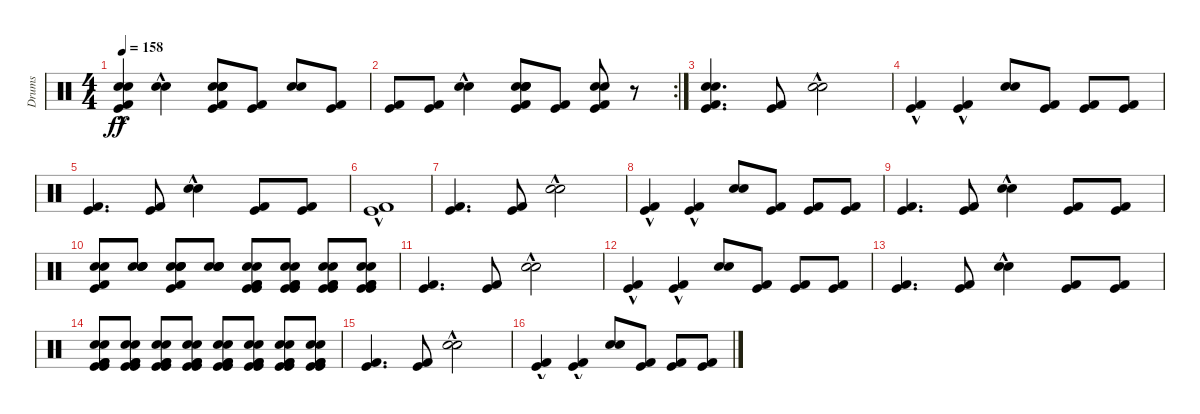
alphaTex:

\track ("Drums" "Drums") {instrument percussion}
\staff {score}
\articulation defaults
\ts (4 4)
\tempo 158
\clef neutral
\ks c
("Snare (hit) 2" "Electric Snare (hit)" "Kick (hit)"{hac} "Kick (hit) 2"{hac}).4{dy ff} ("Snare (hit) 2"{hac} "Electric Snare (hit)"{hac}).4 ("Snare (hit) 2" "Electric Snare (hit)" "Kick (hit)" "Kick (hit) 2" "Snare (hit) 2" "Electric Snare (hit)").8 ("Kick (hit)" "Kick (hit) 2").8 ("Snare (hit) 2" "Electric Snare (hit)").8 ("Kick (hit)" "Kick (hit) 2").8 |
\rc 2
("Kick (hit)" "Kick (hit) 2").8 ("Kick (hit)" "Kick (hit) 2").8 ("Snare (hit) 2"{hac} "Electric Snare (hit)"{hac}).4 ("Snare (hit) 2" "Electric Snare (hit)" "Kick (hit)" "Kick (hit) 2" "Snare (hit) 2" "Electric Snare (hit)").8 ("Kick (hit)" "Kick (hit) 2").8 ("Snare (hit) 2" "Electric Snare (hit)" "Kick (hit)" "Kick (hit) 2").8 r.8 |
("Snare (hit) 2" "Electric Snare (hit)" "Kick (hit)" "Kick (hit) 2").4{d} ("Kick (hit)" "Kick (hit) 2").8 ("Snare (hit) 2"{hac} "Electric Snare (hit)"{hac}).2 |
("Kick (hit)"{hac} "Kick (hit) 2"{hac}).4 ("Kick (hit)"{hac} "Kick (hit) 2"{hac}).4 ("Snare (hit) 2" "Electric Snare (hit)").8 ("Kick (hit)" "Kick (hit) 2").8 ("Kick (hit)" "Kick (hit) 2").8 ("Kick (hit)" "Kick (hit) 2").8 |
("Kick (hit)" "Kick (hit) 2").4{d} ("Kick (hit)" "Kick (hit) 2").8 ("Snare (hit) 2"{hac} "Electric Snare (hit)"{hac}).4 ("Kick (hit)" "Kick (hit) 2").8 ("Kick (hit)" "Kick (hit) 2").8 |
("Kick (hit)"{hac} "Kick (hit) 2"{hac}).1 |
("Kick (hit)" "Kick (hit) 2").4{d} ("Kick (hit)" "Kick (hit) 2").8 ("Snare (hit) 2"{hac} "Electric Snare (hit)"{hac}).2 |
("Kick (hit)"{hac} "Kick (hit) 2"{hac}).4 ("Kick (hit)"{hac} "Kick (hit) 2"{hac}).4 ("Snare (hit) 2" "Electric Snare (hit)").8 ("Kick (hit)" "Kick (hit) 2").8 ("Kick (hit)" "Kick (hit) 2").8 ("Kick (hit)" "Kick (hit) 2").8 |
("Kick (hit)" "Kick (hit) 2").4{d} ("Kick (hit)" "Kick (hit) 2").8 ("Snare (hit) 2"{hac} "Electric Snare (hit)"{hac}).4 ("Kick (hit)" "Kick (hit) 2").8 ("Kick (hit)" "Kick (hit) 2").8 |
("Kick (hit)" "Kick (hit) 2" "Snare (hit) 2" "Electric Snare (hit)").8 ("Snare (hit) 2" "Electric Snare (hit)" "Snare (hit) 2" "Electric Snare (hit)").8 ("Kick (hit)" "Kick (hit) 2" "Snare (hit) 2" "Electric Snare (hit)" "Snare (hit) 2" "Electric Snare (hit)").8 ("Snare (hit) 2" "Electric Snare (hit)" "Snare (hit) 2" "Electric Snare (hit)").8 ("Kick (hit)" "Kick (hit) 2" "Snare (hit) 2" "Electric Snare (hit)" "Kick (hit)" "Kick (hit) 2").8 ("Kick (hit)" "Kick (hit) 2" "Snare (hit) 2" "Electric Snare (hit)" "Kick (hit)" "Kick (hit) 2").8 ("Kick (hit)" "Kick (hit) 2" "Snare (hit) 2" "Electric Snare (hit)" "Kick (hit)" "Kick (hit) 2").8 ("Kick (hit)" "Kick (hit) 2" "Snare (hit) 2" "Electric Snare (hit)" "Kick (hit)" "Kick (hit) 2").8 |
("Kick (hit)" "Kick (hit) 2").4{d} ("Kick (hit)" "Kick (hit) 2").8 ("Snare (hit) 2"{hac} "Electric Snare (hit)"{hac}).2 |
("Kick (hit)"{hac} "Kick (hit) 2"{hac}).4 ("Kick (hit)"{hac} "Kick (hit) 2"{hac}).4 ("Snare (hit) 2" "Electric Snare (hit)").8 ("Kick (hit)" "Kick (hit) 2").8 ("Kick (hit)" "Kick (hit) 2").8 ("Kick (hit)" "Kick (hit) 2").8 |
("Kick (hit)" "Kick (hit) 2").4{d} ("Kick (hit)" "Kick (hit) 2").8 ("Snare (hit) 2"{hac} "Electric Snare (hit)"{hac}).4 ("Kick (hit)" "Kick (hit) 2").8 ("Kick (hit)" "Kick (hit) 2").8 |
("Kick (hit)" "Kick (hit) 2" "Snare (hit) 2" "Electric Snare (hit)" "Kick (hit)" "Kick (hit) 2").8 ("Kick (hit)" "Kick (hit) 2" "Snare (hit) 2" "Electric Snare (hit)" "Kick (hit)" "Kick (hit) 2").8 ("Kick (hit)" "Kick (hit) 2" "Snare (hit) 2" "Electric Snare (hit)" "Kick (hit)" "Kick (hit) 2").8 ("Kick (hit)" "Kick (hit) 2" "Snare (hit) 2" "Electric Snare (hit)" "Kick (hit)" "Kick (hit) 2").8 ("Kick (hit)" "Kick (hit) 2" "Snare (hit) 2" "Electric Snare (hit)" "Kick (hit)" "Kick (hit) 2").8 ("Kick (hit)" "Kick (hit) 2" "Snare (hit) 2" "Electric Snare (hit)" "Kick (hit)" "Kick (hit) 2").8 ("Kick (hit)" "Kick (hit) 2" "Snare (hit) 2" "Electric Snare (hit)" "Kick (hit)" "Kick (hit) 2").8 ("Kick (hit)" "Kick (hit) 2" "Snare (hit) 2" "Electric Snare (hit)" "Kick (hit)" "Kick (hit) 2").8 |
("Kick (hit)" "Kick (hit) 2").4{d} ("Kick (hit)" "Kick (hit) 2").8 ("Snare (hit) 2"{hac} "Electric Snare (hit)"{hac}).2 |
("Kick (hit)"{hac} "Kick (hit) 2"{hac}).4 ("Kick (hit)"{hac} "Kick (hit) 2"{hac}).4 ("Snare (hit) 2" "Electric Snare (hit)").8 ("Kick (hit)" "Kick (hit) 2").8 ("Kick (hit)" "Kick (hit) 2").8 ("Kick (hit)" "Kick (hit) 2").8
